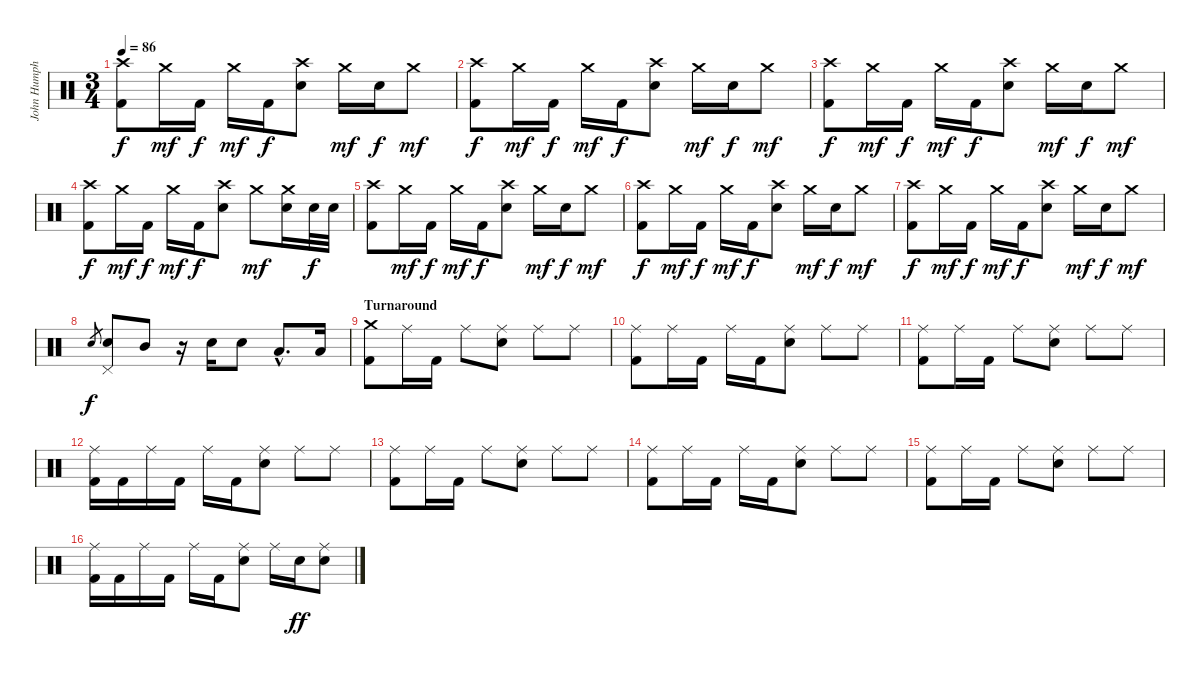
\track ("John Humphrey" "John Humph") {instrument percussion}
\staff {score}
\articulation defaults
\ts (3 4)
\tempo 86
\clef neutral
\ks c
("Crash high (hit)" "Kick (hit) 2").8{dy f} "Crash medium (hit)".16{dy mf} "Kick (hit) 2".16{dy f} "Crash medium (hit)".16{dy mf} "Kick (hit) 2".16{dy f} ("Crash high (hit)" "Snare (hit) 2").8 "Crash medium (hit)".16{dy mf} "Snare (hit) 2".16{dy f} "Crash medium (hit)".8{dy mf} |
("Crash high (hit)" "Kick (hit) 2").8{dy f} "Crash medium (hit)".16{dy mf} "Kick (hit) 2".16{dy f} "Crash medium (hit)".16{dy mf} "Kick (hit) 2".16{dy f} ("Crash high (hit)" "Snare (hit) 2").8 "Crash medium (hit)".16{dy mf} "Snare (hit) 2".16{dy f} "Crash medium (hit)".8{dy mf} |
("Crash high (hit)" "Kick (hit) 2").8{dy f} "Crash medium (hit)".16{dy mf} "Kick (hit) 2".16{dy f} "Crash medium (hit)".16{dy mf} "Kick (hit) 2".16{dy f} ("Crash high (hit)" "Snare (hit) 2").8 "Crash medium (hit)".16{dy mf} "Snare (hit) 2".16{dy f} "Crash medium (hit)".8{dy mf} |
("Crash high (hit)" "Kick (hit) 2").8{dy f} "Crash medium (hit)".16{dy mf} "Kick (hit) 2".16{dy f} "Crash medium (hit)".16{dy mf} "Kick (hit) 2".16{dy f} ("Crash high (hit)" "Snare (hit) 2").8 "Crash medium (hit)".8{dy mf} ("Crash medium (hit)" "Snare (hit) 2").16 "Snare (hit) 2".32{dy f} "Snare (hit) 2".32 |
("Crash high (hit)" "Kick (hit) 2").8 "Crash medium (hit)".16{dy mf} "Kick (hit) 2".16{dy f} "Crash medium (hit)".16{dy mf} "Kick (hit) 2".16{dy f} ("Crash high (hit)" "Snare (hit) 2").8 "Crash medium (hit)".16{dy mf} "Snare (hit) 2".16{dy f} "Crash medium (hit)".8{dy mf} |
("Crash high (hit)" "Kick (hit) 2").8{dy f} "Crash medium (hit)".16{dy mf} "Kick (hit) 2".16{dy f} "Crash medium (hit)".16{dy mf} "Kick (hit) 2".16{dy f} ("Crash high (hit)" "Snare (hit) 2").8 "Crash medium (hit)".16{dy mf} "Snare (hit) 2".16{dy f} "Crash medium (hit)".8{dy mf} |
("Crash high (hit)" "Kick (hit) 2").8{dy f} "Crash medium (hit)".16{dy mf} "Kick (hit) 2".16{dy f} "Crash medium (hit)".16{dy mf} "Kick (hit) 2".16{dy f} ("Crash high (hit)" "Snare (hit) 2").8 "Crash medium (hit)".16{dy mf} "Snare (hit) 2".16{dy f} "Crash medium (hit)".8{dy mf} |
"Snare (hit) 2".8{gr dy f} ("Pedal Hi-Hat (hit)" "Snare (hit) 2").8 "Mid Tom (hit)".8 r.16 "Snare (hit) 2".16 "Snare (hit) 2".8 "Low Tom (hit)"{hac}.8{d} "Low Floor Tom (hit)".16 |
\section ("" "Turnaround")
("Crash medium (hit)" "Kick (hit) 2").8 "Ride (middle)".16 "Kick (hit) 2".16 "Ride (middle)".8 ("Ride (middle)" "Snare (hit) 2").8 "Ride (middle)".8 "Ride (middle)".8 |
("Ride (middle)" "Kick (hit) 2").8 "Ride (middle)".16 "Kick (hit) 2".16 "Ride (middle)".16 "Kick (hit) 2".16 ("Ride (middle)" "Snare (hit) 2").8 "Ride (middle)".8 "Ride (middle)".8 |
("Ride (middle)" "Kick (hit) 2").8 "Ride (middle)".16 "Kick (hit) 2".16 "Ride (middle)".8 ("Ride (middle)" "Snare (hit) 2").8 "Ride (middle)".8 "Ride (middle)".8 |
("Ride (middle)" "Kick (hit) 2").16 "Kick (hit) 2".16 "Ride (middle)".16 "Kick (hit) 2".16 "Ride (middle)".16 "Kick (hit) 2".16 ("Ride (middle)" "Snare (hit) 2").8 "Ride (middle)".8 "Ride (middle)".8 |
("Ride (middle)" "Kick (hit) 2").8 "Ride (middle)".16 "Kick (hit) 2".16 "Ride (middle)".8 ("Ride (middle)" "Snare (hit) 2").8 "Ride (middle)".8 "Ride (middle)".8 |
("Ride (middle)" "Kick (hit) 2").8 "Ride (middle)".16 "Kick (hit) 2".16 "Ride (middle)".16 "Kick (hit) 2".16 ("Ride (middle)" "Snare (hit) 2").8 "Ride (middle)".8 "Ride (middle)".8 |
("Ride (middle)" "Kick (hit) 2").8 "Ride (middle)".16 "Kick (hit) 2".16 "Ride (middle)".8 ("Ride (middle)" "Snare (hit) 2").8 "Ride (middle)".8 "Ride (middle)".8 |
("Ride (middle)" "Kick (hit) 2").16 "Kick (hit) 2".16 "Ride (middle)".16 "Kick (hit) 2".16 "Ride (middle)".16 "Kick (hit) 2".16 ("Ride (middle)" "Snare (hit) 2").8 "Ride (middle)".16 "Snare (hit) 2".16{dy ff} ("Ride (middle)" "Snare (hit) 2").8
